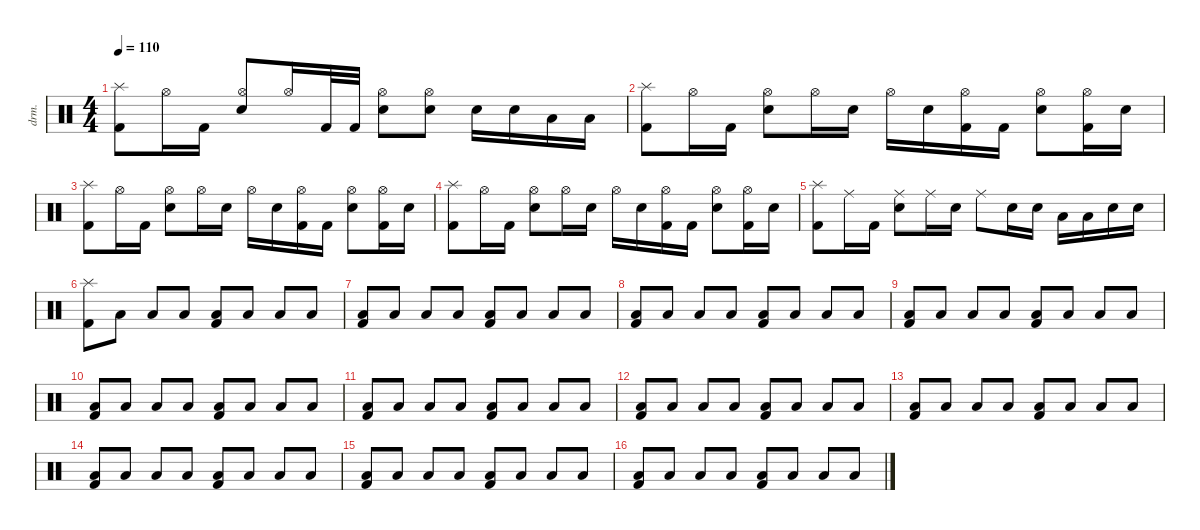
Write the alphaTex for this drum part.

\defaultSystemsLayout 4
\hideDynamics
\bracketExtendMode nobrackets
\track ("Drumkit" "drm.") {instrument percussion}
\staff {score}
\articulation defaults
\ts (4 4)
\tempo 110
\clef neutral
\ks c
("Splash (hit)" "Kick (hit) 2").8{dy mf beam Down} "Hi-Hat (open)".16{beam Down} "Kick (hit) 2".16{beam Down} ("Hi-Hat (open)" "Snare (hit) 2").8{beam Up} "Hi-Hat (open)".16{beam Up} "Kick (hit) 2".32{beam Up} "Kick (hit) 2".32{beam Up} ("Hi-Hat (open)" "Snare (hit) 2").8{beam Down} ("Snare (hit) 2" "Hi-Hat (open)").8{beam Down} "Snare (hit) 2".16{beam Down} "Snare (hit) 2".16{beam Down} "Low Tom (hit)".16{beam Down} "Low Tom (hit)".16{beam Down} |
("Kick (hit) 2" "Splash (hit)").8{beam Down} "Hi-Hat (open)".16{beam Down} "Kick (hit) 2".16{beam Down} ("Hi-Hat (open)" "Snare (hit) 2").8{beam Down} "Hi-Hat (open)".16{beam Down} "Snare (hit) 2".16{beam Down} "Hi-Hat (open)".16{beam Down} "Snare (hit) 2".16{beam Down} ("Hi-Hat (open)" "Kick (hit) 2").16{beam Down} "Kick (hit) 2".16{beam Down} ("Snare (hit) 2" "Hi-Hat (open)").8{beam Down} ("Hi-Hat (open)" "Kick (hit) 2").16{beam Down} "Snare (hit) 2".16{beam Down} |
("Kick (hit) 2" "Splash (hit)").8{beam Down} "Hi-Hat (open)".16{beam Down} "Kick (hit) 2".16{beam Down} ("Hi-Hat (open)" "Snare (hit) 2").8{beam Down} "Hi-Hat (open)".16{beam Down} "Snare (hit) 2".16{beam Down} "Hi-Hat (open)".16{beam Down} "Snare (hit) 2".16{beam Down} ("Hi-Hat (open)" "Kick (hit) 2").16{beam Down} "Kick (hit) 2".16{beam Down} ("Snare (hit) 2" "Hi-Hat (open)").8{beam Down} ("Hi-Hat (open)" "Kick (hit) 2").16{beam Down} "Snare (hit) 2".16{beam Down} |
("Kick (hit) 2" "Splash (hit)").8{beam Down} "Hi-Hat (open)".16{beam Down} "Kick (hit) 2".16{beam Down} ("Hi-Hat (open)" "Snare (hit) 2").8{beam Down} "Hi-Hat (open)".16{beam Down} "Snare (hit) 2".16{beam Down} "Hi-Hat (open)".16{beam Down} "Snare (hit) 2".16{beam Down} ("Hi-Hat (open)" "Kick (hit) 2").16{beam Down} "Kick (hit) 2".16{beam Down} ("Snare (hit) 2" "Hi-Hat (open)").8{beam Down} ("Hi-Hat (open)" "Kick (hit) 2").16{beam Down} "Snare (hit) 2".16{beam Down} |
("Splash (hit)" "Kick (hit) 2").8{beam Down} "Ride (middle)".16{beam Down} "Kick (hit) 2".16{beam Down} ("Ride (middle)" "Snare (hit) 2").8{beam Down} "Ride (middle)".16{beam Down} "Snare (hit) 2".16{beam Down} "Ride (middle)".8{beam Down} "Snare (hit) 2".16{beam Down} "Snare (hit) 2".16{beam Down} "Low Tom (hit)".16{beam Down} "Low Tom (hit)".16{beam Down} "Snare (hit) 2".16{beam Down} "Snare (hit) 2".16{beam Down} |
("Splash (hit)" "Kick (hit) 2").8{beam Down} "Low Tom (hit)".8{beam Down} "Low Tom (hit)".8{beam Up} "Low Tom (hit)".8{beam Up} ("Low Tom (hit)" "Kick (hit) 2").8{beam Up} "Low Tom (hit)".8{beam Up} "Low Tom (hit)".8{beam Up} "Low Tom (hit)".8{beam Up} |
("Low Tom (hit)" "Kick (hit) 2").8{beam Up} "Low Tom (hit)".8{beam Up} "Low Tom (hit)".8{beam Up} "Low Tom (hit)".8{beam Up} ("Low Tom (hit)" "Kick (hit) 2").8{beam Up} "Low Tom (hit)".8{beam Up} "Low Tom (hit)".8{beam Up} "Low Tom (hit)".8{beam Up} |
("Low Tom (hit)" "Kick (hit) 2").8{beam Up} "Low Tom (hit)".8{beam Up} "Low Tom (hit)".8{beam Up} "Low Tom (hit)".8{beam Up} ("Low Tom (hit)" "Kick (hit) 2").8{beam Up} "Low Tom (hit)".8{beam Up} "Low Tom (hit)".8{beam Up} "Low Tom (hit)".8{beam Up} |
("Low Tom (hit)" "Kick (hit) 2").8{beam Up} "Low Tom (hit)".8{beam Up} "Low Tom (hit)".8{beam Up} "Low Tom (hit)".8{beam Up} ("Low Tom (hit)" "Kick (hit) 2").8{beam Up} "Low Tom (hit)".8{beam Up} "Low Tom (hit)".8{beam Up} "Low Tom (hit)".8{beam Up} |
("Low Tom (hit)" "Kick (hit) 2").8{beam Up} "Low Tom (hit)".8{beam Up} "Low Tom (hit)".8{beam Up} "Low Tom (hit)".8{beam Up} ("Low Tom (hit)" "Kick (hit) 2").8{beam Up} "Low Tom (hit)".8{beam Up} "Low Tom (hit)".8{beam Up} "Low Tom (hit)".8{beam Up} |
("Low Tom (hit)" "Kick (hit) 2").8{beam Up} "Low Tom (hit)".8{beam Up} "Low Tom (hit)".8{beam Up} "Low Tom (hit)".8{beam Up} ("Low Tom (hit)" "Kick (hit) 2").8{beam Up} "Low Tom (hit)".8{beam Up} "Low Tom (hit)".8{beam Up} "Low Tom (hit)".8{beam Up} |
("Low Tom (hit)" "Kick (hit) 2").8{beam Up} "Low Tom (hit)".8{beam Up} "Low Tom (hit)".8{beam Up} "Low Tom (hit)".8{beam Up} ("Low Tom (hit)" "Kick (hit) 2").8{beam Up} "Low Tom (hit)".8{beam Up} "Low Tom (hit)".8{beam Up} "Low Tom (hit)".8{beam Up} |
("Low Tom (hit)" "Kick (hit) 2").8{beam Up} "Low Tom (hit)".8{beam Up} "Low Tom (hit)".8{beam Up} "Low Tom (hit)".8{beam Up} ("Low Tom (hit)" "Kick (hit) 2").8{beam Up} "Low Tom (hit)".8{beam Up} "Low Tom (hit)".8{beam Up} "Low Tom (hit)".8{beam Up} |
("Low Tom (hit)" "Kick (hit) 2").8{beam Up} "Low Tom (hit)".8{beam Up} "Low Tom (hit)".8{beam Up} "Low Tom (hit)".8{beam Up} ("Low Tom (hit)" "Kick (hit) 2").8{beam Up} "Low Tom (hit)".8{beam Up} "Low Tom (hit)".8{beam Up} "Low Tom (hit)".8{beam Up} |
("Low Tom (hit)" "Kick (hit) 2").8{beam Up} "Low Tom (hit)".8{beam Up} "Low Tom (hit)".8{beam Up} "Low Tom (hit)".8{beam Up} ("Low Tom (hit)" "Kick (hit) 2").8{beam Up} "Low Tom (hit)".8{beam Up} "Low Tom (hit)".8{beam Up} "Low Tom (hit)".8{beam Up} |
("Low Tom (hit)" "Kick (hit) 2").8{beam Up} "Low Tom (hit)".8{beam Up} "Low Tom (hit)".8{beam Up} "Low Tom (hit)".8{beam Up} ("Low Tom (hit)" "Kick (hit) 2").8{beam Up} "Low Tom (hit)".8{beam Up} "Low Tom (hit)".8{beam Up} "Low Tom (hit)".8{beam Up}
